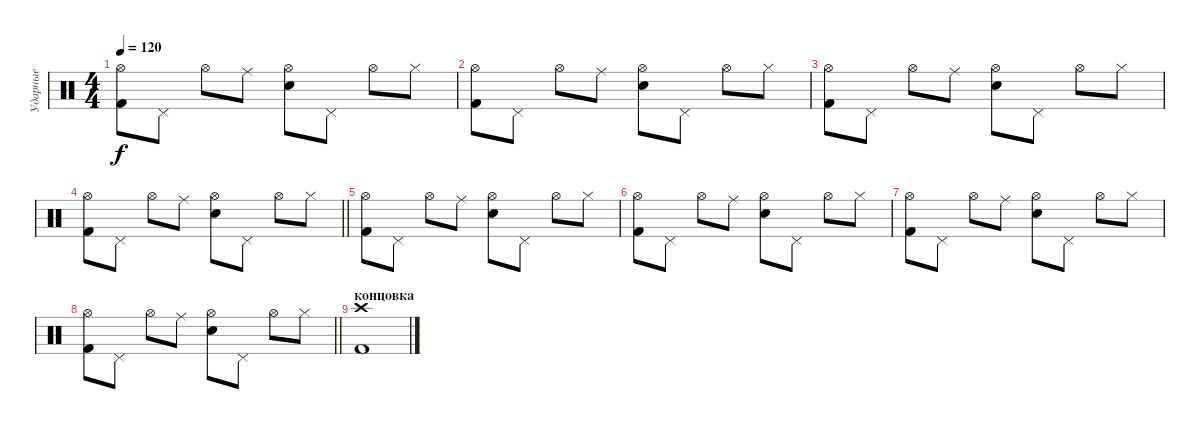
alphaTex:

\track ("Ударные" "Ударные") {instrument percussion}
\staff {score}
\articulation defaults
\ts (4 4)
\section ("" "")
\tempo 120
\clef neutral
\ks c
("Kick (hit) 2" "Hi-Hat (open)").8{dy f} "Pedal Hi-Hat (hit)".8 "Hi-Hat (open)".8 "Ride (middle)".8 ("Snare (hit) 2" "Hi-Hat (open)").8 "Pedal Hi-Hat (hit)".8 "Hi-Hat (open)".8 "Hi-Hat (closed)".8 |
("Kick (hit) 2" "Hi-Hat (open)").8 "Pedal Hi-Hat (hit)".8 "Hi-Hat (open)".8 "Ride (middle)".8 ("Snare (hit) 2" "Hi-Hat (open)").8 "Pedal Hi-Hat (hit)".8 "Hi-Hat (open)".8 "Hi-Hat (closed)".8 |
("Kick (hit) 2" "Hi-Hat (open)").8 "Pedal Hi-Hat (hit)".8 "Hi-Hat (open)".8 "Ride (middle)".8 ("Snare (hit) 2" "Hi-Hat (open)").8 "Pedal Hi-Hat (hit)".8 "Hi-Hat (open)".8 "Hi-Hat (closed)".8 |
\barLineRight lightlight
("Kick (hit) 2" "Hi-Hat (open)").8 "Pedal Hi-Hat (hit)".8 "Hi-Hat (open)".8 "Ride (middle)".8 ("Snare (hit) 2" "Hi-Hat (open)").8 "Pedal Hi-Hat (hit)".8 "Hi-Hat (open)".8 "Hi-Hat (closed)".8 |
("Kick (hit) 2" "Hi-Hat (open)").8 "Pedal Hi-Hat (hit)".8 "Hi-Hat (open)".8 "Ride (middle)".8 ("Snare (hit) 2" "Hi-Hat (open)").8 "Pedal Hi-Hat (hit)".8 "Hi-Hat (open)".8 "Hi-Hat (closed)".8 |
("Kick (hit) 2" "Hi-Hat (open)").8 "Pedal Hi-Hat (hit)".8 "Hi-Hat (open)".8 "Ride (middle)".8 ("Snare (hit) 2" "Hi-Hat (open)").8 "Pedal Hi-Hat (hit)".8 "Hi-Hat (open)".8 "Hi-Hat (closed)".8 |
("Kick (hit) 2" "Hi-Hat (open)").8 "Pedal Hi-Hat (hit)".8 "Hi-Hat (open)".8 "Ride (middle)".8 ("Snare (hit) 2" "Hi-Hat (open)").8 "Pedal Hi-Hat (hit)".8 "Hi-Hat (open)".8 "Hi-Hat (closed)".8 |
\barLineRight lightlight
("Kick (hit) 2" "Hi-Hat (open)").8 "Pedal Hi-Hat (hit)".8 "Hi-Hat (open)".8 "Ride (middle)".8 ("Snare (hit) 2" "Hi-Hat (open)").8 "Pedal Hi-Hat (hit)".8 "Hi-Hat (open)".8 "Hi-Hat (closed)".8 |
\section ("" "концовка")
("Kick (hit) 2" "Crash high (hit)").1
